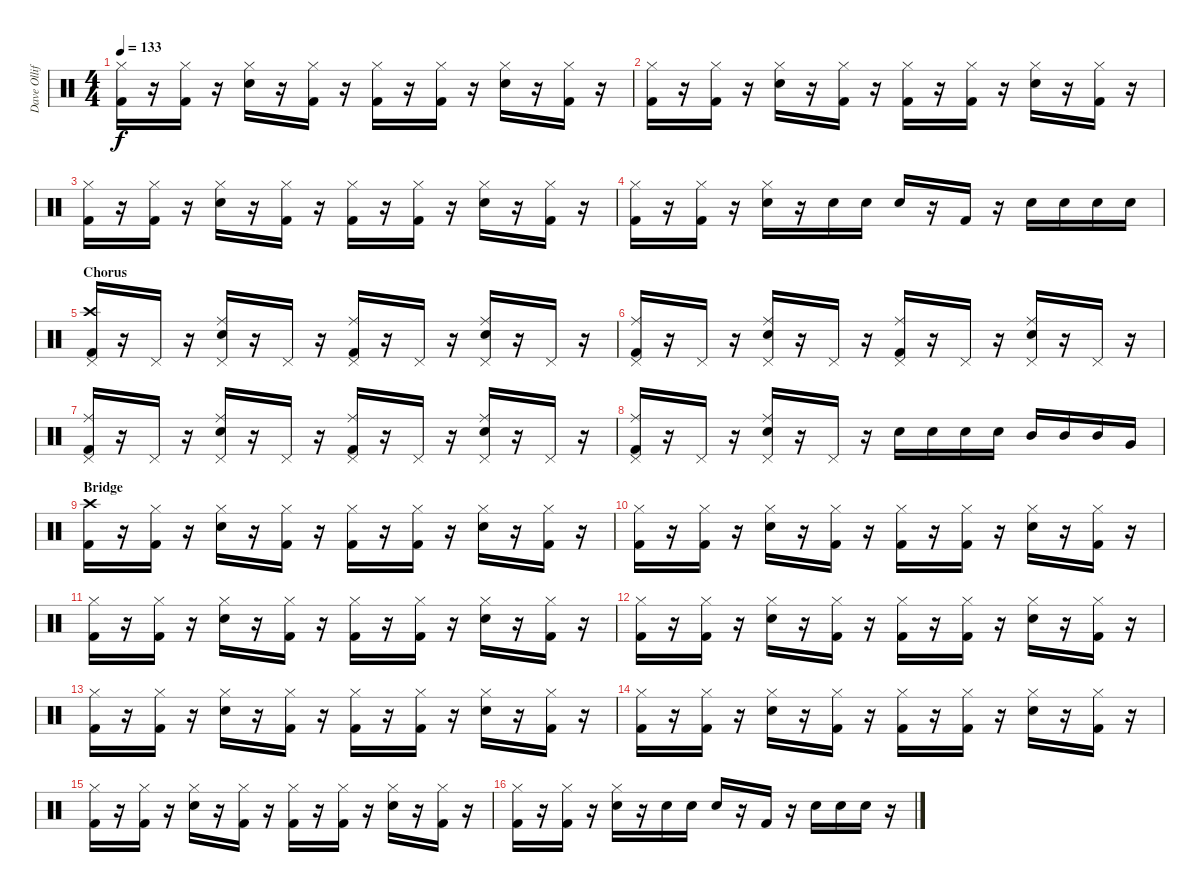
\track ("Dave Olliffe - Drums" "Dave Ollif") {instrument percussion}
\staff {score}
\articulation defaults
\ts (4 4)
\tempo 133
\clef neutral
\ks c
("Hi-Hat (closed)" "Kick (hit) 2").16{dy f} r.16 ("Hi-Hat (closed)" "Kick (hit) 2").16 r.16 ("Hi-Hat (closed)" "Snare (hit) 2").16 r.16 ("Hi-Hat (closed)" "Kick (hit) 2").16 r.16 ("Hi-Hat (closed)" "Kick (hit) 2").16 r.16 ("Hi-Hat (closed)" "Kick (hit) 2").16 r.16 ("Hi-Hat (closed)" "Snare (hit) 2").16 r.16 ("Hi-Hat (closed)" "Kick (hit) 2").16 r.16 |
("Hi-Hat (closed)" "Kick (hit) 2").16 r.16 ("Hi-Hat (closed)" "Kick (hit) 2").16 r.16 ("Hi-Hat (closed)" "Snare (hit) 2").16 r.16 ("Hi-Hat (closed)" "Kick (hit) 2").16 r.16 ("Hi-Hat (closed)" "Kick (hit) 2").16 r.16 ("Hi-Hat (closed)" "Kick (hit) 2").16 r.16 ("Hi-Hat (closed)" "Snare (hit) 2").16 r.16 ("Hi-Hat (closed)" "Kick (hit) 2").16 r.16 |
("Hi-Hat (closed)" "Kick (hit) 2").16 r.16 ("Hi-Hat (closed)" "Kick (hit) 2").16 r.16 ("Hi-Hat (closed)" "Snare (hit) 2").16 r.16 ("Hi-Hat (closed)" "Kick (hit) 2").16 r.16 ("Hi-Hat (closed)" "Kick (hit) 2").16 r.16 ("Hi-Hat (closed)" "Kick (hit) 2").16 r.16 ("Hi-Hat (closed)" "Snare (hit) 2").16 r.16 ("Hi-Hat (closed)" "Kick (hit) 2").16 r.16 |
("Hi-Hat (closed)" "Kick (hit) 2").16 r.16 ("Hi-Hat (closed)" "Kick (hit) 2").16 r.16 ("Hi-Hat (closed)" "Snare (hit) 2").16 r.16 "Snare (hit) 2".16 "Snare (hit) 2".16 "Snare (hit) 2".16 r.16 "Kick (hit) 2".16 r.16 "Snare (hit) 2".16 "Snare (hit) 2".16 "Snare (hit) 2".16 "Snare (hit) 2".16 |
\section ("" "Chorus")
("Crash high (hit)" "Pedal Hi-Hat (hit)" "Kick (hit) 2").16 r.16 "Pedal Hi-Hat (hit)".16 r.16 ("Ride (middle)" "Pedal Hi-Hat (hit)" "Snare (hit) 2").16 r.16 "Pedal Hi-Hat (hit)".16 r.16 ("Ride (middle)" "Pedal Hi-Hat (hit)" "Kick (hit) 2").16 r.16 "Pedal Hi-Hat (hit)".16 r.16 ("Ride (middle)" "Pedal Hi-Hat (hit)" "Snare (hit) 2").16 r.16 "Pedal Hi-Hat (hit)".16 r.16 |
("Ride (middle)" "Pedal Hi-Hat (hit)" "Kick (hit) 2").16 r.16 "Pedal Hi-Hat (hit)".16 r.16 ("Ride (middle)" "Pedal Hi-Hat (hit)" "Snare (hit) 2").16 r.16 "Pedal Hi-Hat (hit)".16 r.16 ("Ride (middle)" "Pedal Hi-Hat (hit)" "Kick (hit) 2").16 r.16 "Pedal Hi-Hat (hit)".16 r.16 ("Ride (middle)" "Pedal Hi-Hat (hit)" "Snare (hit) 2").16 r.16 "Pedal Hi-Hat (hit)".16 r.16 |
("Ride (middle)" "Pedal Hi-Hat (hit)" "Kick (hit) 2").16 r.16 "Pedal Hi-Hat (hit)".16 r.16 ("Ride (middle)" "Pedal Hi-Hat (hit)" "Snare (hit) 2").16 r.16 "Pedal Hi-Hat (hit)".16 r.16 ("Ride (middle)" "Pedal Hi-Hat (hit)" "Kick (hit) 2").16 r.16 "Pedal Hi-Hat (hit)".16 r.16 ("Ride (middle)" "Pedal Hi-Hat (hit)" "Snare (hit) 2").16 r.16 "Pedal Hi-Hat (hit)".16 r.16 |
("Ride (middle)" "Pedal Hi-Hat (hit)" "Kick (hit) 2").16 r.16 "Pedal Hi-Hat (hit)".16 r.16 ("Ride (middle)" "Pedal Hi-Hat (hit)" "Snare (hit) 2").16 r.16 "Pedal Hi-Hat (hit)".16 r.16 "Snare (hit) 2".16 "Snare (hit) 2".16 "Snare (hit) 2".16 "Snare (hit) 2".16 "Mid Tom (hit)".16 "Mid Tom (hit)".16 "Mid Tom (hit)".16 "Very Low Tom (hit)".16 |
\section ("" "Bridge")
("Crash high (hit)" "Kick (hit) 2").16 r.16 ("Hi-Hat (closed)" "Kick (hit) 2").16 r.16 ("Hi-Hat (closed)" "Snare (hit) 2").16 r.16 ("Hi-Hat (closed)" "Kick (hit) 2").16 r.16 ("Hi-Hat (closed)" "Kick (hit) 2").16 r.16 ("Hi-Hat (closed)" "Kick (hit) 2").16 r.16 ("Hi-Hat (closed)" "Snare (hit) 2").16 r.16 ("Hi-Hat (closed)" "Kick (hit) 2").16 r.16 |
("Hi-Hat (closed)" "Kick (hit) 2").16 r.16 ("Hi-Hat (closed)" "Kick (hit) 2").16 r.16 ("Hi-Hat (closed)" "Snare (hit) 2").16 r.16 ("Hi-Hat (closed)" "Kick (hit) 2").16 r.16 ("Hi-Hat (closed)" "Kick (hit) 2").16 r.16 ("Hi-Hat (closed)" "Kick (hit) 2").16 r.16 ("Hi-Hat (closed)" "Snare (hit) 2").16 r.16 ("Hi-Hat (closed)" "Kick (hit) 2").16 r.16 |
("Hi-Hat (closed)" "Kick (hit) 2").16 r.16 ("Hi-Hat (closed)" "Kick (hit) 2").16 r.16 ("Hi-Hat (closed)" "Snare (hit) 2").16 r.16 ("Hi-Hat (closed)" "Kick (hit) 2").16 r.16 ("Hi-Hat (closed)" "Kick (hit) 2").16 r.16 ("Hi-Hat (closed)" "Kick (hit) 2").16 r.16 ("Hi-Hat (closed)" "Snare (hit) 2").16 r.16 ("Hi-Hat (closed)" "Kick (hit) 2").16 r.16 |
("Hi-Hat (closed)" "Kick (hit) 2").16 r.16 ("Hi-Hat (closed)" "Kick (hit) 2").16 r.16 ("Hi-Hat (closed)" "Snare (hit) 2").16 r.16 ("Hi-Hat (closed)" "Kick (hit) 2").16 r.16 ("Hi-Hat (closed)" "Kick (hit) 2").16 r.16 ("Hi-Hat (closed)" "Kick (hit) 2").16 r.16 ("Hi-Hat (closed)" "Snare (hit) 2").16 r.16 ("Hi-Hat (closed)" "Kick (hit) 2").16 r.16 |
("Hi-Hat (closed)" "Kick (hit) 2").16 r.16 ("Hi-Hat (closed)" "Kick (hit) 2").16 r.16 ("Hi-Hat (closed)" "Snare (hit) 2").16 r.16 ("Hi-Hat (closed)" "Kick (hit) 2").16 r.16 ("Hi-Hat (closed)" "Kick (hit) 2").16 r.16 ("Hi-Hat (closed)" "Kick (hit) 2").16 r.16 ("Hi-Hat (closed)" "Snare (hit) 2").16 r.16 ("Hi-Hat (closed)" "Kick (hit) 2").16 r.16 |
("Hi-Hat (closed)" "Kick (hit) 2").16 r.16 ("Hi-Hat (closed)" "Kick (hit) 2").16 r.16 ("Hi-Hat (closed)" "Snare (hit) 2").16 r.16 ("Hi-Hat (closed)" "Kick (hit) 2").16 r.16 ("Hi-Hat (closed)" "Kick (hit) 2").16 r.16 ("Hi-Hat (closed)" "Kick (hit) 2").16 r.16 ("Hi-Hat (closed)" "Snare (hit) 2").16 r.16 ("Hi-Hat (closed)" "Kick (hit) 2").16 r.16 |
("Hi-Hat (closed)" "Kick (hit) 2").16 r.16 ("Hi-Hat (closed)" "Kick (hit) 2").16 r.16 ("Hi-Hat (closed)" "Snare (hit) 2").16 r.16 ("Hi-Hat (closed)" "Kick (hit) 2").16 r.16 ("Hi-Hat (closed)" "Kick (hit) 2").16 r.16 ("Hi-Hat (closed)" "Kick (hit) 2").16 r.16 ("Hi-Hat (closed)" "Snare (hit) 2").16 r.16 ("Hi-Hat (closed)" "Kick (hit) 2").16 r.16 |
("Hi-Hat (closed)" "Kick (hit) 2").16 r.16 ("Hi-Hat (closed)" "Kick (hit) 2").16 r.16 ("Hi-Hat (closed)" "Snare (hit) 2").16 r.16 "Snare (hit) 2".16 "Snare (hit) 2".16 "Snare (hit) 2".16 r.16 "Kick (hit) 2".16 r.16 "Snare (hit) 2".16 "Snare (hit) 2".16 "Snare (hit) 2".16 r.16
